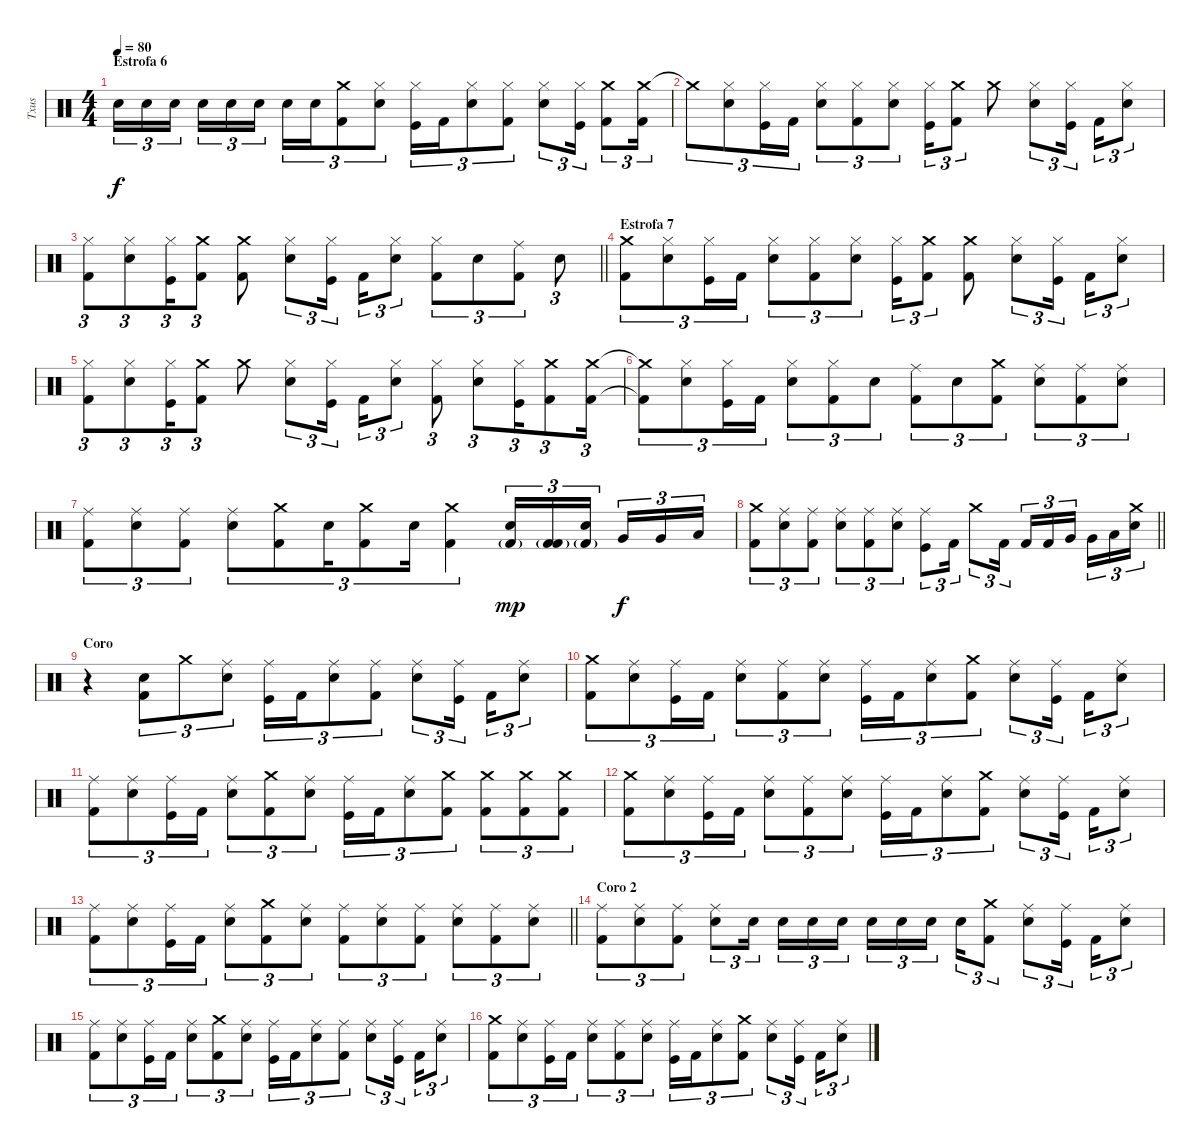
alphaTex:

\track ("Txus" "Txus") {instrument percussion}
\staff {score}
\articulation defaults
\ts (4 4)
\section ("" "Estrofa 6")
\tempo 80
\clef neutral
\ks c "Electric Snare (hit)".16{tu (3 2) dy f} "Electric Snare (hit)".16{tu (3 2)} "Electric Snare (hit)".16{tu (3 2) beam splitsecondary} "Electric Snare (hit)".16{tu (3 2)} "Electric Snare (hit)".16{tu (3 2)} "Electric Snare (hit)".16{tu (3 2)} "Electric Snare (hit)".16{tu (3 2)} "Electric Snare (hit)".16{tu (3 2)}
("Crash medium (hit)" "Kick (hit) 2").8{tu (3 2)} ("Hi-Hat (closed)" "Electric Snare (hit)").8{tu (3 2)} ("Hi-Hat (closed)" "Kick (hit)").16{tu (3 2)} "Kick (hit) 2".16{tu (3 2)} ("Hi-Hat (closed)" "Electric Snare (hit)").8{tu (3 2)} ("Hi-Hat (closed)" "Kick (hit) 2").8{tu (3 2)} ("Hi-Hat (closed)" "Electric Snare (hit)").8{tu (3 2)} ("Hi-Hat (closed)" "Kick (hit)").16{tu (3 2)} ("Crash medium (hit)" "Kick (hit) 2").8{tu (3 2)} ("Crash medium (hit)" "Kick (hit) 2").16{tu (3 2)} |
"Crash medium (hit)"{t}.8{tu (3 2)} ("Hi-Hat (closed)" "Electric Snare (hit)").8{tu (3 2)} ("Hi-Hat (closed)" "Kick (hit)").16{tu (3 2)} "Kick (hit) 2".16{tu (3 2)} ("Hi-Hat (closed)" "Electric Snare (hit)").8{tu (3 2)} ("Hi-Hat (closed)" "Kick (hit) 2").8{tu (3 2)} ("Hi-Hat (closed)" "Electric Snare (hit)").8{tu (3 2)} ("Hi-Hat (closed)" "Kick (hit)").16{tu (3 2)} ("Crash medium (hit)" "Kick (hit) 2").8{tu (3 2)} "Crash medium (hit)".8 ("Hi-Hat (closed)" "Electric Snare (hit)").8{tu (3 2)} ("Hi-Hat (closed)" "Kick (hit)").16{tu (3 2) beam splitsecondary} "Kick (hit) 2".16{tu (3 2)} ("Hi-Hat (closed)" "Electric Snare (hit)").8{tu (3 2)} |
\barLineRight lightlight
("Hi-Hat (closed)" "Kick (hit) 2").8{tu (3 2)} ("Hi-Hat (closed)" "Electric Snare (hit)").8{tu (3 2)} ("Hi-Hat (closed)" "Kick (hit)").16{tu (3 2)} ("Crash medium (hit)" "Kick (hit) 2").8{tu (3 2)} ("Crash medium (hit)" "Kick (hit) 2").8 ("Hi-Hat (closed)" "Electric Snare (hit)").8{tu (3 2)} ("Hi-Hat (closed)" "Kick (hit)").16{tu (3 2) beam splitsecondary} "Kick (hit) 2".16{tu (3 2)} ("Hi-Hat (closed)" "Electric Snare (hit)").8{tu (3 2)} ("Hi-Hat (closed)" "Kick (hit) 2").8{tu (3 2)} "Electric Snare (hit)".8{tu (3 2)} ("Ride (middle)" "Kick (hit) 2").8{tu (3 2)} "Electric Snare (hit)".8{tu (3 2)} |
\section ("" "Estrofa 7")
("Crash medium (hit)" "Kick (hit) 2").8{tu (3 2)} ("Hi-Hat (closed)" "Electric Snare (hit)").8{tu (3 2)} ("Hi-Hat (closed)" "Kick (hit)").16{tu (3 2)} "Kick (hit) 2".16{tu (3 2)} ("Hi-Hat (closed)" "Electric Snare (hit)").8{tu (3 2)} ("Hi-Hat (closed)" "Kick (hit) 2").8{tu (3 2)} ("Hi-Hat (closed)" "Electric Snare (hit)").8{tu (3 2)} ("Hi-Hat (closed)" "Kick (hit)").16{tu (3 2)} ("Crash medium (hit)" "Kick (hit) 2").8{tu (3 2)} ("Crash medium (hit)" "Kick (hit) 2").8 ("Hi-Hat (closed)" "Electric Snare (hit)").8{tu (3 2)} ("Hi-Hat (closed)" "Kick (hit)").16{tu (3 2) beam splitsecondary} "Kick (hit) 2".16{tu (3 2)} ("Hi-Hat (closed)" "Electric Snare (hit)").8{tu (3 2)} |
("Hi-Hat (closed)" "Kick (hit) 2").8{tu (3 2)} ("Hi-Hat (closed)" "Electric Snare (hit)").8{tu (3 2)} ("Hi-Hat (closed)" "Kick (hit)").16{tu (3 2)} ("Crash medium (hit)" "Kick (hit) 2").8{tu (3 2)} "Crash medium (hit)".8 ("Hi-Hat (closed)" "Electric Snare (hit)").8{tu (3 2)} ("Hi-Hat (closed)" "Kick (hit)").16{tu (3 2) beam splitsecondary} "Kick (hit) 2".16{tu (3 2)} ("Hi-Hat (closed)" "Electric Snare (hit)").8{tu (3 2)} ("Hi-Hat (closed)" "Kick (hit) 2").8{tu (3 2)} ("Hi-Hat (closed)" "Electric Snare (hit)").8{tu (3 2)} ("Hi-Hat (closed)" "Kick (hit)").16{tu (3 2)} ("Crash medium (hit)" "Kick (hit) 2").8{tu (3 2)} ("Crash medium (hit)" "Kick (hit) 2").16{tu (3 2)} |
("Crash medium (hit)"{t} "Kick (hit) 2"{t}).8{tu (3 2)} ("Hi-Hat (closed)" "Electric Snare (hit)").8{tu (3 2)} ("Hi-Hat (closed)" "Kick (hit)").16{tu (3 2)} "Kick (hit) 2".16{tu (3 2)} ("Hi-Hat (closed)" "Electric Snare (hit)").8{tu (3 2)} ("Hi-Hat (closed)" "Kick (hit) 2").8{tu (3 2)} "Electric Snare (hit)".8{tu (3 2)} ("Ride (middle)" "Kick (hit) 2").8{tu (3 2)} "Electric Snare (hit)".8{tu (3 2)} ("Crash medium (hit)" "Kick (hit) 2").8{tu (3 2)} ("Ride (middle)" "Electric Snare (hit)").8{tu (3 2)} ("Ride (middle)" "Kick (hit) 2").8{tu (3 2)} ("Ride (middle)" "Electric Snare (hit)").8{tu (3 2)} |
("Ride (middle)" "Kick (hit) 2").8{tu (3 2)} ("Ride (middle)" "Electric Snare (hit)").8{tu (3 2)} ("Ride (middle)" "Kick (hit) 2").8{tu (3 2)} ("Ride (middle)" "Electric Snare (hit)").8{tu (3 2)} ("Crash medium (hit)" "Kick (hit) 2").8{tu (3 2)} "Electric Snare (hit)".16{tu (3 2)} ("Crash medium (hit)" "Kick (hit) 2").8{tu (3 2)} "Electric Snare (hit)".16{tu (3 2)} ("Crash medium (hit)" "Kick (hit) 2").4{tu (3 2)} ("Electric Snare (hit)" "Kick (hit) 2"{g}).16{tu (3 2) dy mp} ("Kick (hit) 2" "Kick (hit) 2"{g}).16{tu (3 2)} ("Electric Snare (hit)" "Kick (hit) 2"{g}).16{tu (3 2) beam splitsecondary} "Very Low Tom (hit)".16{tu (3 2) dy f} "Very Low Tom (hit)".16{tu (3 2)} "Low Floor Tom (hit)".16{tu (3 2)} |
\barLineRight lightlight
("Crash medium (hit)" "Kick (hit) 2").8{tu (3 2)} ("Ride (middle)" "Electric Snare (hit)").8{tu (3 2)} ("Ride (middle)" "Kick (hit) 2").8{tu (3 2)} ("Ride (middle)" "Electric Snare (hit)").8{tu (3 2)} ("Ride (middle)" "Kick (hit) 2").8{tu (3 2)} ("Ride (middle)" "Electric Snare (hit)").8{tu (3 2)} ("Ride (middle)" "Kick (hit)").8{tu (3 2)} "Kick (hit) 2".16{tu (3 2)} "Crash medium (hit)".8{tu (3 2)} "Kick (hit) 2".16{tu (3 2)} "Kick (hit) 2".16{tu (3 2)} "Kick (hit) 2".16{tu (3 2)} "Very Low Tom (hit)".16{tu (3 2) beam splitsecondary} "Very Low Tom (hit)".16{tu (3 2)} "Low Floor Tom (hit)".16{tu (3 2)} ("Crash medium (hit)" "Electric Snare (hit)").16{tu (3 2)} |
\section ("" "Coro")
r.4 ("Electric Snare (hit)" "Kick (hit) 2").8{tu (3 2)} "Crash medium (hit)".8{tu (3 2)} ("Ride (middle)" "Electric Snare (hit)").8{tu (3 2)} ("Ride (middle)" "Kick (hit)").16{tu (3 2)} "Kick (hit) 2".16{tu (3 2)} ("Ride (middle)" "Electric Snare (hit)").8{tu (3 2)} ("Ride (middle)" "Kick (hit) 2").8{tu (3 2)} ("Ride (middle)" "Electric Snare (hit)").8{tu (3 2)} ("Ride (middle)" "Kick (hit)").16{tu (3 2) beam splitsecondary} "Kick (hit) 2".16{tu (3 2)} ("Ride (middle)" "Electric Snare (hit)").8{tu (3 2)} |
("Crash medium (hit)" "Kick (hit) 2").8{tu (3 2)} ("Ride (middle)" "Electric Snare (hit)").8{tu (3 2)} ("Ride (middle)" "Kick (hit)").16{tu (3 2)} "Kick (hit) 2".16{tu (3 2)} ("Ride (middle)" "Electric Snare (hit)").8{tu (3 2)} ("Ride (middle)" "Kick (hit) 2").8{tu (3 2)} ("Ride (middle)" "Electric Snare (hit)").8{tu (3 2)} ("Ride (middle)" "Kick (hit)").16{tu (3 2)} "Kick (hit) 2".16{tu (3 2)} ("Ride (middle)" "Electric Snare (hit)").8{tu (3 2)} ("Crash medium (hit)" "Kick (hit) 2").8{tu (3 2)} ("Ride (middle)" "Electric Snare (hit)").8{tu (3 2)} ("Ride (middle)" "Kick (hit)").16{tu (3 2) beam splitsecondary} "Kick (hit) 2".16{tu (3 2)} ("Ride (middle)" "Electric Snare (hit)").8{tu (3 2)} |
("Ride (middle)" "Kick (hit) 2").8{tu (3 2)} ("Ride (middle)" "Electric Snare (hit)").8{tu (3 2)} ("Ride (middle)" "Kick (hit)").16{tu (3 2)} "Kick (hit) 2".16{tu (3 2)} ("Ride (middle)" "Electric Snare (hit)").8{tu (3 2)} ("Crash medium (hit)" "Kick (hit) 2").8{tu (3 2)} ("Ride (middle)" "Electric Snare (hit)").8{tu (3 2)} ("Ride (middle)" "Kick (hit)").16{tu (3 2)} "Kick (hit) 2".16{tu (3 2)} ("Ride (middle)" "Electric Snare (hit)").8{tu (3 2)} ("Crash medium (hit)" "Kick (hit) 2").8{tu (3 2)} ("Crash medium (hit)" "Kick (hit) 2").8{tu (3 2)} ("Crash medium (hit)" "Kick (hit) 2").8{tu (3 2)} ("Crash medium (hit)" "Kick (hit) 2").8{tu (3 2)} |
("Crash medium (hit)" "Kick (hit) 2").8{tu (3 2)} ("Ride (middle)" "Electric Snare (hit)").8{tu (3 2)} ("Ride (middle)" "Kick (hit)").16{tu (3 2)} "Kick (hit) 2".16{tu (3 2)} ("Ride (middle)" "Electric Snare (hit)").8{tu (3 2)} ("Ride (middle)" "Kick (hit) 2").8{tu (3 2)} ("Ride (middle)" "Electric Snare (hit)").8{tu (3 2)} ("Ride (middle)" "Kick (hit)").16{tu (3 2)} "Kick (hit) 2".16{tu (3 2)} ("Ride (middle)" "Electric Snare (hit)").8{tu (3 2)} ("Crash medium (hit)" "Kick (hit) 2").8{tu (3 2)} ("Ride (middle)" "Electric Snare (hit)").8{tu (3 2)} ("Ride (middle)" "Kick (hit)").16{tu (3 2) beam splitsecondary} "Kick (hit) 2".16{tu (3 2)} ("Ride (middle)" "Electric Snare (hit)").8{tu (3 2)} |
\barLineRight lightlight
("Ride (middle)" "Kick (hit) 2").8{tu (3 2)} ("Ride (middle)" "Electric Snare (hit)").8{tu (3 2)} ("Ride (middle)" "Kick (hit)").16{tu (3 2)} "Kick (hit) 2".16{tu (3 2)} ("Ride (middle)" "Electric Snare (hit)").8{tu (3 2)} ("Crash medium (hit)" "Kick (hit) 2").8{tu (3 2)} ("Ride (middle)" "Electric Snare (hit)").8{tu (3 2)} ("Ride (middle)" "Kick (hit) 2").8{tu (3 2)} ("Ride (middle)" "Electric Snare (hit)").8{tu (3 2)} ("Ride (middle)" "Kick (hit) 2").8{tu (3 2)} ("Ride (middle)" "Electric Snare (hit)").8{tu (3 2)} ("Ride (middle)" "Kick (hit) 2").8{tu (3 2)} ("Ride (middle)" "Electric Snare (hit)").8{tu (3 2)} |
\section ("" "Coro 2")
("Ride (middle)" "Kick (hit) 2").8{tu (3 2)} ("Ride (middle)" "Electric Snare (hit)").8{tu (3 2)} ("Ride (middle)" "Kick (hit) 2").8{tu (3 2)} ("Ride (middle)" "Electric Snare (hit)").8{tu (3 2)} "Electric Snare (hit)".16{tu (3 2) beam splitsecondary} "Electric Snare (hit)".16{tu (3 2)} "Electric Snare (hit)".16{tu (3 2)} "Electric Snare (hit)".16{tu (3 2)} "Electric Snare (hit)".16{tu (3 2)} "Electric Snare (hit)".16{tu (3 2)} "Electric Snare (hit)".16{tu (3 2) beam splitsecondary} "Electric Snare (hit)".16{tu (3 2)} ("Crash medium (hit)" "Kick (hit) 2").8{tu (3 2)} ("Ride (middle)" "Electric Snare (hit)").8{tu (3 2)} ("Ride (middle)" "Kick (hit)").16{tu (3 2) beam splitsecondary} "Kick (hit) 2".16{tu (3 2)} ("Ride (middle)" "Electric Snare (hit)").8{tu (3 2)} |
("Ride (middle)" "Kick (hit) 2").8{tu (3 2)} ("Ride (middle)" "Electric Snare (hit)").8{tu (3 2)} ("Ride (middle)" "Kick (hit)").16{tu (3 2)} "Kick (hit) 2".16{tu (3 2)} ("Ride (middle)" "Electric Snare (hit)").8{tu (3 2)} ("Crash medium (hit)" "Kick (hit) 2").8{tu (3 2)} ("Ride (middle)" "Electric Snare (hit)").8{tu (3 2)} ("Ride (middle)" "Kick (hit)").16{tu (3 2)} "Kick (hit) 2".16{tu (3 2)} ("Ride (middle)" "Electric Snare (hit)").8{tu (3 2)} ("Ride (middle)" "Kick (hit) 2").8{tu (3 2)} ("Ride (middle)" "Electric Snare (hit)").8{tu (3 2)} ("Ride (middle)" "Kick (hit)").16{tu (3 2) beam splitsecondary} "Kick (hit) 2".16{tu (3 2)} ("Ride (middle)" "Electric Snare (hit)").8{tu (3 2)} |
("Crash medium (hit)" "Kick (hit) 2").8{tu (3 2)} ("Ride (middle)" "Electric Snare (hit)").8{tu (3 2)} ("Ride (middle)" "Kick (hit)").16{tu (3 2)} "Kick (hit) 2".16{tu (3 2)} ("Ride (middle)" "Electric Snare (hit)").8{tu (3 2)} ("Ride (middle)" "Kick (hit) 2").8{tu (3 2)} ("Ride (middle)" "Electric Snare (hit)").8{tu (3 2)} ("Ride (middle)" "Kick (hit)").16{tu (3 2)} "Kick (hit) 2".16{tu (3 2)} ("Ride (middle)" "Electric Snare (hit)").8{tu (3 2)} ("Crash medium (hit)" "Kick (hit) 2").8{tu (3 2)} ("Ride (middle)" "Electric Snare (hit)").8{tu (3 2)} ("Ride (middle)" "Kick (hit)").16{tu (3 2) beam splitsecondary} "Kick (hit) 2".16{tu (3 2)} ("Ride (middle)" "Electric Snare (hit)").8{tu (3 2)}
